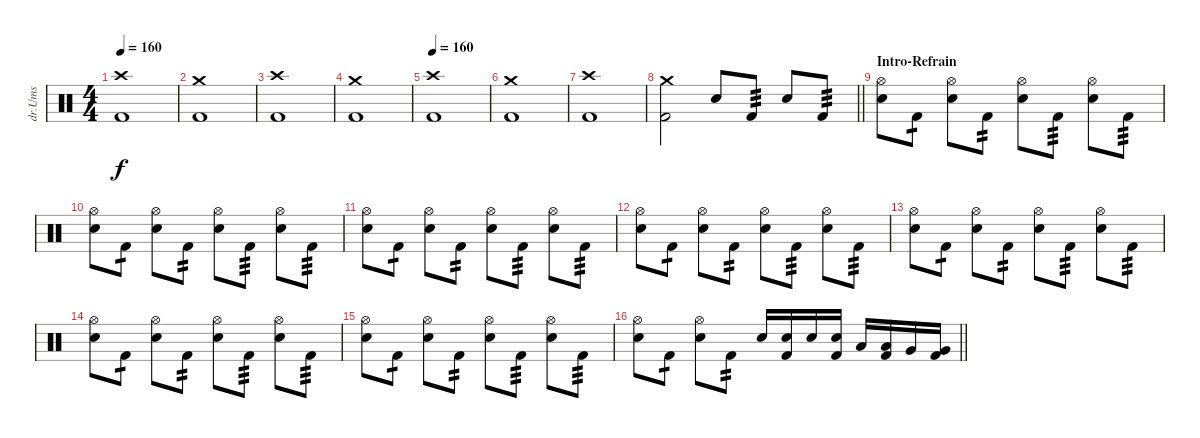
\track ("dr.Ums" "dr.Ums") {instrument percussion}
\staff {score}
\articulation defaults
\ts (4 4)
\tempo 160
\clef neutral
\ks c
("Crash high (hit)" "Kick (hit) 2").1{dy f} |
("Crash medium (hit)" "Kick (hit) 2").1 |
("Crash high (hit)" "Kick (hit) 2").1 |
("Crash medium (hit)" "Kick (hit) 2").1 |
\tempo 160
("Crash high (hit)" "Kick (hit) 2").1 |
("Crash medium (hit)" "Kick (hit) 2").1 |
("Crash high (hit)" "Kick (hit) 2").1 |
\barLineRight lightlight
("Crash medium (hit)" "Kick (hit) 2").2 "Snare (hit) 2".8 "Kick (hit) 2".8{tp 3} "Snare (hit) 2".8 "Kick (hit) 2".8{tp 3} |
\section ("" "Intro-Refrain")
("Snare (hit) 2" "Hi-Hat (open)").8 "Kick (hit) 2".8{tp 1} ("Snare (hit) 2" "Hi-Hat (open)").8 "Kick (hit) 2".8{tp 2} ("Snare (hit) 2" "Hi-Hat (open)").8 "Kick (hit) 2".8{tp 3} ("Snare (hit) 2" "Hi-Hat (open)").8 "Kick (hit) 2".8{tp 3} |
("Snare (hit) 2" "Hi-Hat (open)").8 "Kick (hit) 2".8{tp 1} ("Snare (hit) 2" "Hi-Hat (open)").8 "Kick (hit) 2".8{tp 2} ("Snare (hit) 2" "Hi-Hat (open)").8 "Kick (hit) 2".8{tp 3} ("Snare (hit) 2" "Hi-Hat (open)").8 "Kick (hit) 2".8{tp 3} |
("Snare (hit) 2" "Hi-Hat (open)").8 "Kick (hit) 2".8{tp 1} ("Snare (hit) 2" "Hi-Hat (open)").8 "Kick (hit) 2".8{tp 2} ("Snare (hit) 2" "Hi-Hat (open)").8 "Kick (hit) 2".8{tp 3} ("Snare (hit) 2" "Hi-Hat (open)").8 "Kick (hit) 2".8{tp 3} |
("Snare (hit) 2" "Hi-Hat (open)").8 "Kick (hit) 2".8{tp 1} ("Snare (hit) 2" "Hi-Hat (open)").8 "Kick (hit) 2".8{tp 2} ("Snare (hit) 2" "Hi-Hat (open)").8 "Kick (hit) 2".8{tp 3} ("Snare (hit) 2" "Hi-Hat (open)").8 "Kick (hit) 2".8{tp 3} |
("Snare (hit) 2" "Hi-Hat (open)").8 "Kick (hit) 2".8{tp 1} ("Snare (hit) 2" "Hi-Hat (open)").8 "Kick (hit) 2".8{tp 2} ("Snare (hit) 2" "Hi-Hat (open)").8 "Kick (hit) 2".8{tp 3} ("Snare (hit) 2" "Hi-Hat (open)").8 "Kick (hit) 2".8{tp 3} |
("Snare (hit) 2" "Hi-Hat (open)").8 "Kick (hit) 2".8{tp 1} ("Snare (hit) 2" "Hi-Hat (open)").8 "Kick (hit) 2".8{tp 2} ("Snare (hit) 2" "Hi-Hat (open)").8 "Kick (hit) 2".8{tp 3} ("Snare (hit) 2" "Hi-Hat (open)").8 "Kick (hit) 2".8{tp 3} |
("Snare (hit) 2" "Hi-Hat (open)").8 "Kick (hit) 2".8{tp 1} ("Snare (hit) 2" "Hi-Hat (open)").8 "Kick (hit) 2".8{tp 2} ("Snare (hit) 2" "Hi-Hat (open)").8 "Kick (hit) 2".8{tp 3} ("Snare (hit) 2" "Hi-Hat (open)").8 "Kick (hit) 2".8{tp 3} |
\barLineRight lightlight
("Snare (hit) 2" "Hi-Hat (open)").8 "Kick (hit) 2".8{tp 1} ("Snare (hit) 2" "Hi-Hat (open)").8 "Kick (hit) 2".8{tp 2} "Snare (hit) 2".16 ("Snare (hit) 2" "Kick (hit) 2").16 "Snare (hit) 2".16 ("Snare (hit) 2" "Kick (hit) 2").16 "Low Tom (hit)".16 ("Low Tom (hit)" "Kick (hit) 2").16 "Very Low Tom (hit)".16 ("Very Low Tom (hit)" "Kick (hit) 2").16
